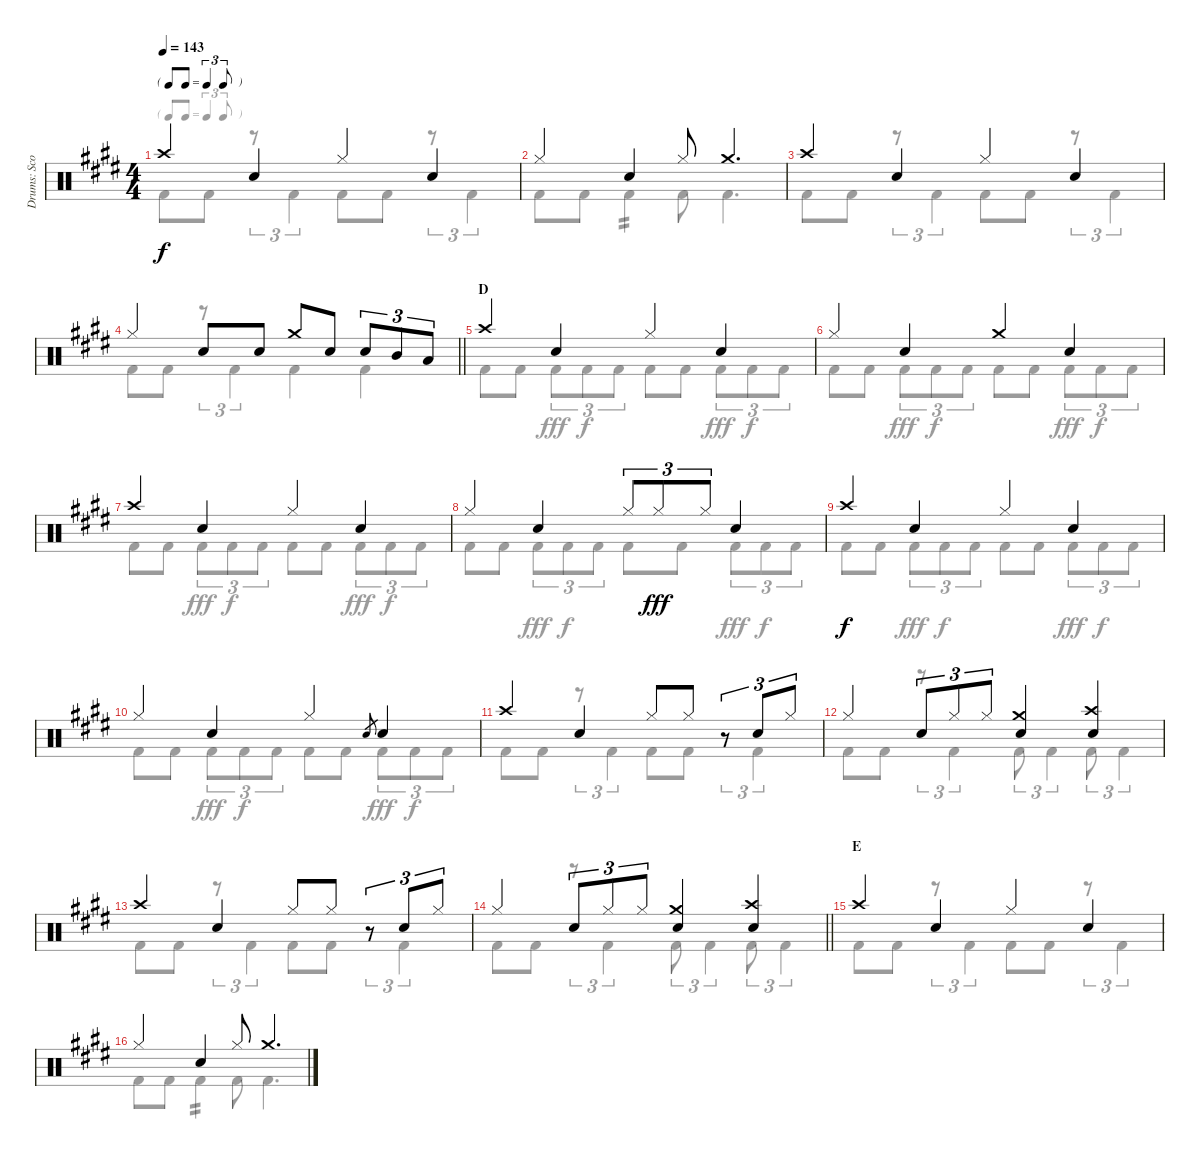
\track ("Drums: Scott" "Drums: Sco") {instrument percussion}
\staff {score}
\articulation defaults
\voice
\ts (4 4)
\tf triplet8th
\tempo 143
\clef neutral
\ks e "Crash high (hit)".4{dy f} "Snare (hit) 2".4 "Hi-Hat (closed)".4 "Snare (hit) 2".4
|
"Hi-Hat (closed)".4 "Snare (hit) 2".4 "Hi-Hat (closed)".8 "Crash medium (hit)".4{d} |
"Crash high (hit)".4 "Snare (hit) 2".4 "Hi-Hat (closed)".4 "Snare (hit) 2".4 |
\barLineRight lightlight "Hi-Hat (closed)".4 "Snare (hit) 2".8 "Electric Snare (hit)".8 "Crash medium (hit)".8 "Snare (hit) 2".8 "Snare (hit) 2".8{tu (3 2)} "Mid Tom (hit)".8{tu (3 2)} "Low Tom (hit)".8{tu (3 2)}
|
\section ("" "D")
"Crash high (hit)".4 "Snare (hit) 2".4 "Hi-Hat (closed)".4 "Snare (hit) 2".4 |
"Hi-Hat (closed)".4 "Snare (hit) 2".4 "Crash medium (hit)".4 "Snare (hit) 2".4 |
"Crash high (hit)".4 "Snare (hit) 2".4 "Hi-Hat (closed)".4 "Snare (hit) 2".4 |
"Hi-Hat (closed)".4 "Snare (hit) 2".4 "Hi-Hat (closed)".8{tu (3 2)} "Hi-Hat (closed)".8{tu (3 2) dy fff} "Hi-Hat (closed)".8{tu (3 2)} "Snare (hit) 2".4 |
"Crash high (hit)".4{dy f} "Snare (hit) 2".4 "Hi-Hat (closed)".4 "Snare (hit) 2".4 |
"Hi-Hat (closed)".4 "Snare (hit) 2".4 "Hi-Hat (closed)".4 "Electric Snare (hit)".8{gr} "Snare (hit) 2".4 |
"Crash high (hit)".4 "Snare (hit) 2".4 "Hi-Hat (closed)".8 "Hi-Hat (closed)".8 r.8{tu (3 2)} "Snare (hit) 2".8{tu (3 2)} "Hi-Hat (closed)".8{tu (3 2)} |
"Hi-Hat (closed)".4 "Snare (hit) 2".8{tu (3 2)} "Hi-Hat (closed)".8{tu (3 2)} "Hi-Hat (closed)".8{tu (3 2)} ("Crash medium (hit)" "Snare (hit) 2").4 ("Crash high (hit)" "Snare (hit) 2").4 |
"Crash high (hit)".4 "Snare (hit) 2".4 "Hi-Hat (closed)".8 "Hi-Hat (closed)".8 r.8{tu (3 2)} "Snare (hit) 2".8{tu (3 2)} "Hi-Hat (closed)".8{tu (3 2)} |
\barLineRight lightlight "Hi-Hat (closed)".4 "Snare (hit) 2".8{tu (3 2)} "Hi-Hat (closed)".8{tu (3 2)} "Hi-Hat (closed)".8{tu (3 2)}
("Crash medium (hit)" "Snare (hit) 2").4 ("Crash high (hit)" "Snare (hit) 2").4 |
\section ("" "E")
"Crash high (hit)".4 "Snare (hit) 2".4 "Hi-Hat (closed)".4 "Snare (hit) 2".4 |
"Hi-Hat (closed)".4 "Snare (hit) 2".4 "Hi-Hat (closed)".8 "Crash medium (hit)".4{d}
\voice
\clef neutral
\ottava regular
\simile none
\ks e "Kick (hit) 2".8{dy f} "Kick (hit) 2".8
r.8{tu (3 2)} "Kick (hit) 2".4{tu (3 2)} "Kick (hit) 2".8 "Kick (hit) 2".8 r.8{tu (3 2)} "Kick (hit) 2".4{tu (3 2)} |
"Kick (hit) 2".8 "Kick (hit) 2".8 "Kick (hit) 2".4{tp 2} "Kick (hit) 2".8 "Kick (hit) 2".4{d} |
"Kick (hit) 2".8 "Kick (hit) 2".8 r.8{tu (3 2)} "Kick (hit) 2".4{tu (3 2)} "Kick (hit) 2".8 "Kick (hit) 2".8 r.8{tu (3 2)} "Kick (hit) 2".4{tu (3 2)} |
\barLineRight lightlight "Kick (hit) 2".8 "Kick (hit) 2".8
r.8{tu (3 2)} "Kick (hit) 2".4{tu (3 2)} "Kick (hit) 2".4 "Kick (hit) 2".4 |
"Kick (hit) 2".8 "Kick (hit) 2".8 "Kick (hit) 2".8{tu (3 2) dy fff} "Kick (hit) 2".8{tu (3 2) dy f} "Kick (hit) 2".8{tu (3 2)} "Kick (hit) 2".8 "Kick (hit) 2".8 "Kick (hit) 2".8{tu (3 2) dy fff} "Kick (hit) 2".8{tu (3 2) dy f} "Kick (hit) 2".8{tu (3 2)} |
"Kick (hit) 2".8 "Kick (hit) 2".8 "Kick (hit) 2".8{tu (3 2) dy fff} "Kick (hit) 2".8{tu (3 2) dy f} "Kick (hit) 2".8{tu (3 2)} "Kick (hit) 2".8 "Kick (hit) 2".8 "Kick (hit) 2".8{tu (3 2) dy fff} "Kick (hit) 2".8{tu (3 2) dy f} "Kick (hit) 2".8{tu (3 2)} |
"Kick (hit) 2".8 "Kick (hit) 2".8 "Kick (hit) 2".8{tu (3 2) dy fff} "Kick (hit) 2".8{tu (3 2) dy f} "Kick (hit) 2".8{tu (3 2)} "Kick (hit) 2".8 "Kick (hit) 2".8 "Kick (hit) 2".8{tu (3 2) dy fff} "Kick (hit) 2".8{tu (3 2) dy f} "Kick (hit) 2".8{tu (3 2)} |
"Kick (hit) 2".8 "Kick (hit) 2".8 "Kick (hit) 2".8{tu (3 2) dy fff} "Kick (hit) 2".8{tu (3 2) dy f} "Kick (hit) 2".8{tu (3 2)} "Kick (hit) 2".8 "Kick (hit) 2".8 "Kick (hit) 2".8{tu (3 2) dy fff} "Kick (hit) 2".8{tu (3 2) dy f} "Kick (hit) 2".8{tu (3 2)} |
"Kick (hit) 2".8 "Kick (hit) 2".8 "Kick (hit) 2".8{tu (3 2) dy fff} "Kick (hit) 2".8{tu (3 2) dy f} "Kick (hit) 2".8{tu (3 2)} "Kick (hit) 2".8 "Kick (hit) 2".8 "Kick (hit) 2".8{tu (3 2) dy fff} "Kick (hit) 2".8{tu (3 2) dy f} "Kick (hit) 2".8{tu (3 2)} |
"Kick (hit) 2".8 "Kick (hit) 2".8 "Kick (hit) 2".8{tu (3 2) dy fff} "Kick (hit) 2".8{tu (3 2) dy f} "Kick (hit) 2".8{tu (3 2)} "Kick (hit) 2".8 "Kick (hit) 2".8 "Kick (hit) 2".8{tu (3 2) dy fff} "Kick (hit) 2".8{tu (3 2) dy f} "Kick (hit) 2".8{tu (3 2)} |
"Kick (hit) 2".8 "Kick (hit) 2".8 r.8{tu (3 2)} "Kick (hit) 2".4{tu (3 2)} "Kick (hit) 2".8 "Kick (hit) 2".8 r.8{tu (3 2)} "Kick (hit) 2".4{tu (3 2)} |
"Kick (hit) 2".8 "Kick (hit) 2".8 r.8{tu (3 2)} "Kick (hit) 2".4{tu (3 2)} "Kick (hit) 2".8{tu (3 2)} "Kick (hit) 2".4{tu (3 2)} "Kick (hit) 2".8{tu (3 2)} "Kick (hit) 2".4{tu (3 2)} |
"Kick (hit) 2".8 "Kick (hit) 2".8 r.8{tu (3 2)} "Kick (hit) 2".4{tu (3 2)} "Kick (hit) 2".8 "Kick (hit) 2".8 r.8{tu (3 2)} "Kick (hit) 2".4{tu (3 2)} |
\barLineRight lightlight "Kick (hit) 2".8 "Kick (hit) 2".8
r.8{tu (3 2)} "Kick (hit) 2".4{tu (3 2)} "Kick (hit) 2".8{tu (3 2)} "Kick (hit) 2".4{tu (3 2)} "Kick (hit) 2".8{tu (3 2)} "Kick (hit) 2".4{tu (3 2)} |
"Kick (hit) 2".8 "Kick (hit) 2".8 r.8{tu (3 2)} "Kick (hit) 2".4{tu (3 2)} "Kick (hit) 2".8 "Kick (hit) 2".8 r.8{tu (3 2)} "Kick (hit) 2".4{tu (3 2)} |
"Kick (hit) 2".8 "Kick (hit) 2".8 "Kick (hit) 2".4{tp 2} "Kick (hit) 2".8 "Kick (hit) 2".4{d}
